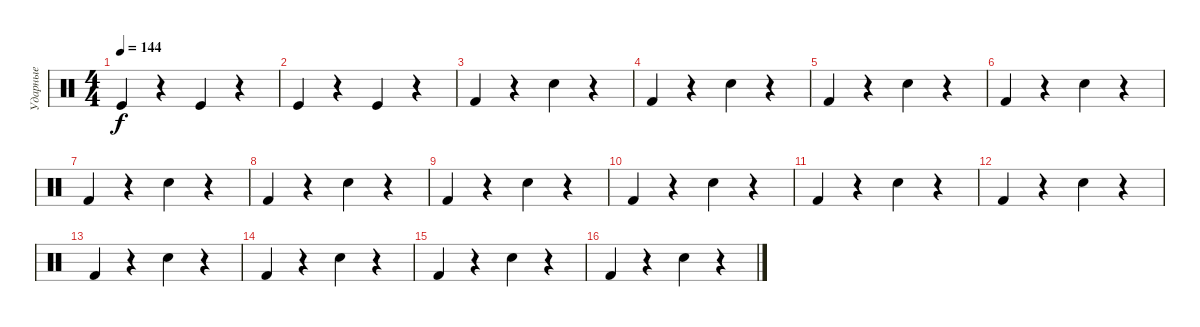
\track ("Ударные" "Ударные") {instrument percussion}
\staff {score}
\articulation defaults
\ts (4 4)
\tempo 144
\clef neutral
\ks c "Kick (hit)".4{dy f}
r.4 "Kick (hit)".4 r.4 |
"Kick (hit)".4 r.4 "Kick (hit)".4 r.4 |
"Kick (hit) 2".4 r.4 "Snare (hit) 2".4 r.4 |
"Kick (hit) 2".4 r.4 "Snare (hit) 2".4 r.4 |
"Kick (hit) 2".4 r.4 "Snare (hit) 2".4 r.4 |
"Kick (hit) 2".4 r.4 "Snare (hit) 2".4 r.4 |
"Kick (hit) 2".4 r.4 "Snare (hit) 2".4 r.4 |
"Kick (hit) 2".4 r.4 "Snare (hit) 2".4 r.4 |
"Kick (hit) 2".4 r.4 "Snare (hit) 2".4 r.4 |
"Kick (hit) 2".4 r.4 "Snare (hit) 2".4 r.4 |
"Kick (hit) 2".4 r.4 "Snare (hit) 2".4 r.4 |
"Kick (hit) 2".4 r.4 "Snare (hit) 2".4 r.4 |
"Kick (hit) 2".4 r.4 "Snare (hit) 2".4 r.4 |
"Kick (hit) 2".4 r.4 "Snare (hit) 2".4 r.4 |
"Kick (hit) 2".4 r.4 "Snare (hit) 2".4 r.4 |
"Kick (hit) 2".4 r.4 "Snare (hit) 2".4 r.4
